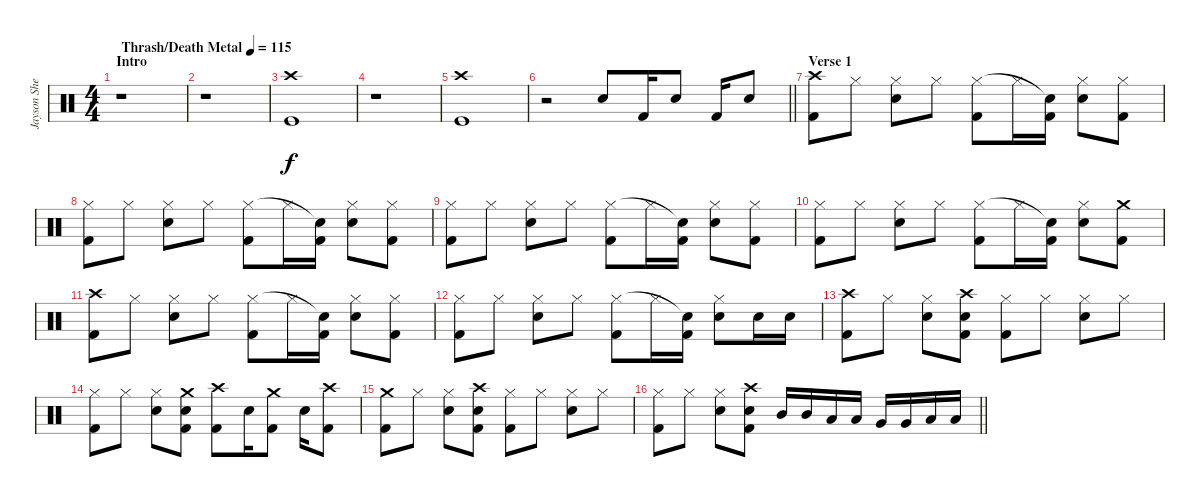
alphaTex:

\track ("Jayson Sherlock" "Jayson She") {instrument percussion}
\staff {score}
\articulation defaults
\ts (4 4)
\section ("" "Intro")
\tempo (115 "Thrash/Death Metal")
\clef neutral
\ks c
r.1{dy f} |
r.1 |
("Kick (hit)" "Crash high (hit)").1 |
r.1 |
("Kick (hit)" "Crash high (hit)").1 |
\barLineRight lightlight
r.2 "Snare (hit) 2".8 "Kick (hit) 2".16 "Snare (hit) 2".8 "Kick (hit) 2".16 "Snare (hit) 2".8 |
\section ("" "Verse 1")
("Kick (hit) 2" "Crash high (hit)").8 "Hi-Hat (closed)".8 ("Hi-Hat (closed)" "Snare (hit) 2").8 "Hi-Hat (closed)".8 ("Kick (hit) 2" "Hi-Hat (closed)").8 "Hi-Hat (closed)".16 ("Kick (hit) 2" "Snare (hit)"{t}).16 ("Hi-Hat (closed)" "Snare (hit) 2").8 ("Kick (hit) 2" "Hi-Hat (closed)").8 |
("Kick (hit) 2" "Hi-Hat (closed)").8 "Hi-Hat (closed)".8 ("Hi-Hat (closed)" "Snare (hit) 2").8 "Hi-Hat (closed)".8 ("Kick (hit) 2" "Hi-Hat (closed)").8 "Hi-Hat (closed)".16 ("Kick (hit) 2" "Snare (hit)"{t}).16 ("Hi-Hat (closed)" "Snare (hit) 2").8 ("Kick (hit) 2" "Hi-Hat (closed)").8 |
("Kick (hit) 2" "Hi-Hat (closed)").8 "Hi-Hat (closed)".8 ("Hi-Hat (closed)" "Snare (hit) 2").8 "Hi-Hat (closed)".8 ("Kick (hit) 2" "Hi-Hat (closed)").8 "Hi-Hat (closed)".16 ("Kick (hit) 2" "Snare (hit)"{t}).16 ("Hi-Hat (closed)" "Snare (hit) 2").8 ("Kick (hit) 2" "Hi-Hat (closed)").8 |
("Kick (hit) 2" "Hi-Hat (closed)").8 "Hi-Hat (closed)".8 ("Hi-Hat (closed)" "Snare (hit) 2").8 "Hi-Hat (closed)".8 ("Kick (hit) 2" "Hi-Hat (closed)").8 "Hi-Hat (closed)".16 ("Kick (hit) 2" "Snare (hit)"{t}).16 ("Hi-Hat (closed)" "Snare (hit) 2").8 ("Kick (hit) 2" "Crash medium (hit)").8 |
("Kick (hit) 2" "Crash high (hit)").8 "Hi-Hat (closed)".8 ("Hi-Hat (closed)" "Snare (hit) 2").8 "Hi-Hat (closed)".8 ("Kick (hit) 2" "Hi-Hat (closed)").8 "Hi-Hat (closed)".16 ("Kick (hit) 2" "Snare (hit)"{t}).16 ("Hi-Hat (closed)" "Snare (hit) 2").8 ("Kick (hit) 2" "Hi-Hat (closed)").8 |
("Kick (hit) 2" "Hi-Hat (closed)").8 "Hi-Hat (closed)".8 ("Hi-Hat (closed)" "Snare (hit) 2").8 "Hi-Hat (closed)".8 ("Kick (hit) 2" "Hi-Hat (closed)").8 "Hi-Hat (closed)".16 ("Kick (hit) 2" "Snare (hit)"{t}).16 ("Hi-Hat (closed)" "Snare (hit) 2").8 "Snare (hit) 2".16 "Snare (hit) 2".16 |
("Kick (hit) 2" "Crash high (hit)").8 "Hi-Hat (closed)".8 ("Hi-Hat (closed)" "Snare (hit) 2").8 ("Kick (hit) 2" "Snare (hit) 2" "Crash high (hit)").8 ("Kick (hit) 2" "Hi-Hat (closed)").8 "Hi-Hat (closed)".8 ("Hi-Hat (closed)" "Snare (hit) 2").8 "Hi-Hat (closed)".8 |
("Kick (hit) 2" "Hi-Hat (closed)").8 "Hi-Hat (closed)".8 ("Hi-Hat (closed)" "Snare (hit) 2").8 ("Kick (hit) 2" "Snare (hit) 2" "Crash medium (hit)").8 ("Kick (hit) 2" "Crash high (hit)").8 "Snare (hit) 2".16 ("Kick (hit) 2" "Crash medium (hit)").8 "Snare (hit) 2".16 ("Kick (hit) 2" "Crash high (hit)").8 |
("Kick (hit) 2" "Crash medium (hit)").8 "Hi-Hat (closed)".8 ("Hi-Hat (closed)" "Snare (hit) 2").8 ("Kick (hit) 2" "Snare (hit) 2" "Crash high (hit)").8 ("Kick (hit) 2" "Hi-Hat (closed)").8 "Hi-Hat (closed)".8 ("Hi-Hat (closed)" "Snare (hit) 2").8 "Hi-Hat (closed)".8 |
\barLineRight lightlight
("Kick (hit) 2" "Hi-Hat (closed)").8 "Hi-Hat (closed)".8 ("Hi-Hat (closed)" "Snare (hit) 2").8 ("Kick (hit) 2" "Snare (hit) 2" "Crash high (hit)").8 "Mid Tom (hit)".16 "Mid Tom (hit)".16 "Low Tom (hit)".16 "Low Tom (hit)".16 "Very Low Tom (hit)".16 "Very Low Tom (hit)".16 "Low Floor Tom (hit)".16 "Low Floor Tom (hit)".16
